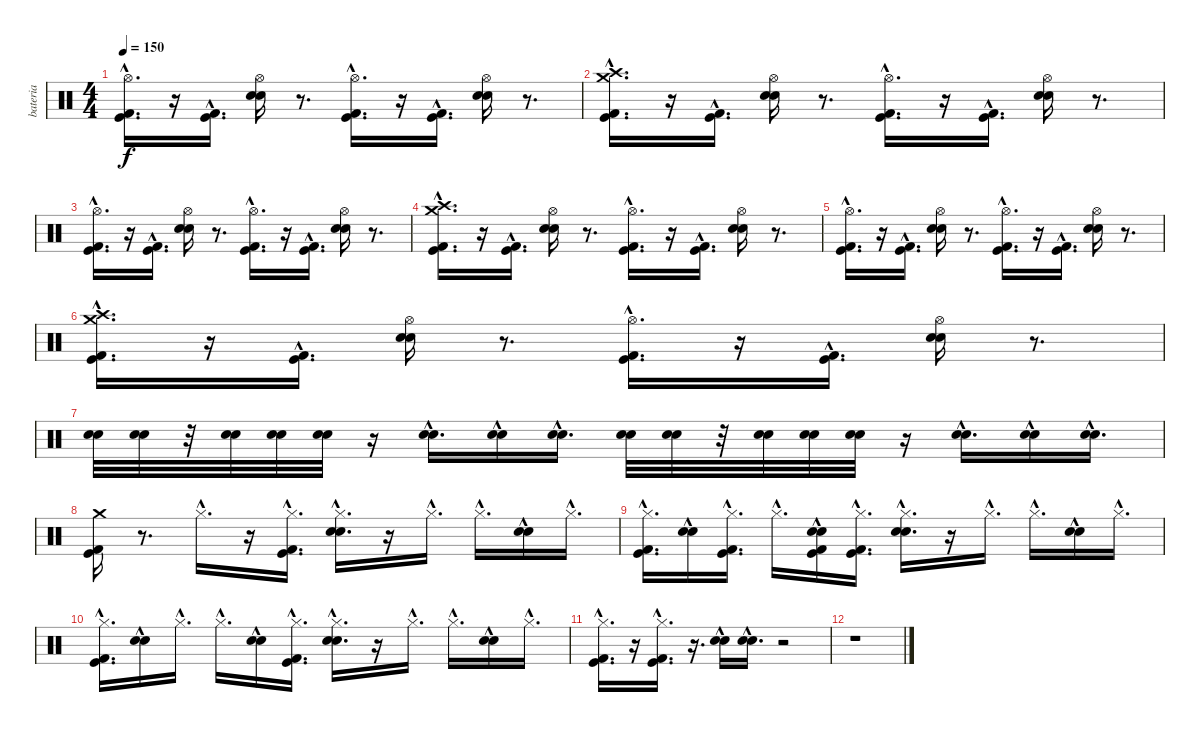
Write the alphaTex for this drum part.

\track ("bateria" "bateria") {instrument percussion}
\staff {score}
\articulation defaults
\ts (4 4)
\tempo 150
\clef neutral
\ks c
("Hi-Hat (open)"{hac} "Kick (hit) 2"{hac} "Kick (hit)"{hac}).16{d dy f} r.16 ("Kick (hit) 2"{hac} "Kick (hit)"{hac}).16{d} ("Hi-Hat (open)" "Electric Snare (hit)" "Snare (hit) 2").16 r.8{d} ("Hi-Hat (open)"{hac} "Kick (hit) 2"{hac} "Kick (hit)"{hac}).16{d} r.16 ("Kick (hit) 2"{hac} "Kick (hit)"{hac}).16{d} ("Hi-Hat (open)" "Electric Snare (hit)" "Snare (hit) 2").16 r.8{d} |
("Crash high (hit)"{hac} "Crash medium (hit)"{hac} "Kick (hit) 2"{hac} "Kick (hit)"{hac}).16{d} r.16 ("Kick (hit) 2"{hac} "Kick (hit)"{hac}).16{d} ("Hi-Hat (open)" "Electric Snare (hit)" "Snare (hit) 2").16 r.8{d} ("Hi-Hat (open)"{hac} "Kick (hit) 2"{hac} "Kick (hit)"{hac}).16{d} r.16 ("Kick (hit) 2"{hac} "Kick (hit)"{hac}).16{d} ("Hi-Hat (open)" "Electric Snare (hit)" "Snare (hit) 2").16 r.8{d} |
("Hi-Hat (open)"{hac} "Kick (hit) 2"{hac} "Kick (hit)"{hac}).16{d} r.16 ("Kick (hit) 2"{hac} "Kick (hit)"{hac}).16{d} ("Hi-Hat (open)" "Electric Snare (hit)" "Snare (hit) 2").16 r.8{d} ("Hi-Hat (open)"{hac} "Kick (hit) 2"{hac} "Kick (hit)"{hac}).16{d} r.16 ("Kick (hit) 2"{hac} "Kick (hit)"{hac}).16{d} ("Hi-Hat (open)" "Electric Snare (hit)" "Snare (hit) 2").16 r.8{d} |
("Crash high (hit)"{hac} "Crash medium (hit)"{hac} "Kick (hit) 2"{hac} "Kick (hit)"{hac}).16{d} r.16 ("Kick (hit) 2"{hac} "Kick (hit)"{hac}).16{d} ("Hi-Hat (open)" "Electric Snare (hit)" "Snare (hit) 2").16 r.8{d} ("Hi-Hat (open)"{hac} "Kick (hit) 2"{hac} "Kick (hit)"{hac}).16{d} r.16 ("Kick (hit) 2"{hac} "Kick (hit)"{hac}).16{d} ("Hi-Hat (open)" "Electric Snare (hit)" "Snare (hit) 2").16 r.8{d} |
("Hi-Hat (open)"{hac} "Kick (hit) 2"{hac} "Kick (hit)"{hac}).16{d} r.16 ("Kick (hit) 2"{hac} "Kick (hit)"{hac}).16{d} ("Hi-Hat (open)" "Electric Snare (hit)" "Snare (hit) 2").16 r.8{d} ("Hi-Hat (open)"{hac} "Kick (hit) 2"{hac} "Kick (hit)"{hac}).16{d} r.16 ("Kick (hit) 2"{hac} "Kick (hit)"{hac}).16{d} ("Hi-Hat (open)" "Electric Snare (hit)" "Snare (hit) 2").16 r.8{d} |
("Crash high (hit)"{hac} "Crash medium (hit)"{hac} "Kick (hit) 2"{hac} "Kick (hit)"{hac}).16{d} r.16 ("Kick (hit) 2"{hac} "Kick (hit)"{hac}).16{d} ("Hi-Hat (open)" "Electric Snare (hit)" "Snare (hit) 2").16 r.8{d} ("Hi-Hat (open)"{hac} "Kick (hit) 2"{hac} "Kick (hit)"{hac}).16{d} r.16 ("Kick (hit) 2"{hac} "Kick (hit)"{hac}).16{d} ("Hi-Hat (open)" "Electric Snare (hit)" "Snare (hit) 2").16 r.8{d} |
("Electric Snare (hit)" "Snare (hit) 2").32 ("Electric Snare (hit)" "Snare (hit) 2").32 r.32 ("Electric Snare (hit)" "Snare (hit) 2").32 ("Electric Snare (hit)" "Snare (hit) 2").32 ("Electric Snare (hit)" "Snare (hit) 2").32 r.16 ("Electric Snare (hit)"{hac} "Snare (hit) 2"{hac}).16{d} ("Electric Snare (hit)"{hac} "Snare (hit) 2"{hac}).16 ("Electric Snare (hit)"{hac} "Snare (hit) 2"{hac}).16{d} ("Electric Snare (hit)" "Snare (hit) 2").32 ("Electric Snare (hit)" "Snare (hit) 2").32 r.32 ("Electric Snare (hit)" "Snare (hit) 2").32 ("Electric Snare (hit)" "Snare (hit) 2").32 ("Electric Snare (hit)" "Snare (hit) 2").32 r.16 ("Electric Snare (hit)"{hac} "Snare (hit) 2"{hac}).16{d} ("Electric Snare (hit)"{hac} "Snare (hit) 2"{hac}).16 ("Electric Snare (hit)"{hac} "Snare (hit) 2"{hac}).16{d} |
("Crash medium (hit)" "Kick (hit) 2" "Kick (hit)").16 r.8{d} "Hi-Hat (closed)"{hac}.16{d} r.16 ("Kick (hit) 2"{hac} "Kick (hit)"{hac} "Hi-Hat (closed)"{hac}).16{d} ("Hi-Hat (closed)"{hac} "Electric Snare (hit)"{hac} "Snare (hit) 2"{hac}).16{d} r.16 "Hi-Hat (closed)"{hac}.16{d} "Hi-Hat (closed)"{hac}.16{d} ("Electric Snare (hit)"{hac} "Snare (hit) 2"{hac}).16 "Hi-Hat (closed)"{hac}.16{d} |
("Kick (hit) 2"{hac} "Kick (hit)"{hac} "Hi-Hat (closed)"{hac}).16{d} ("Electric Snare (hit)"{hac} "Snare (hit) 2"{hac}).16 ("Kick (hit) 2"{hac} "Kick (hit)"{hac} "Hi-Hat (closed)"{hac}).16{d} "Hi-Hat (closed)"{hac}.16{d} ("Kick (hit) 2"{hac} "Kick (hit)"{hac} "Snare (hit) 2"{hac} "Electric Snare (hit)"{hac}).16 ("Kick (hit) 2"{hac} "Kick (hit)"{hac} "Hi-Hat (closed)"{hac}).16{d} ("Electric Snare (hit)"{hac} "Snare (hit) 2"{hac} "Hi-Hat (closed)"{hac}).16{d} r.16 "Hi-Hat (closed)"{hac}.16{d} "Hi-Hat (closed)"{hac}.16{d} ("Electric Snare (hit)"{hac} "Snare (hit) 2"{hac}).16 "Hi-Hat (closed)"{hac}.16{d} |
("Kick (hit) 2"{hac} "Kick (hit)"{hac} "Hi-Hat (closed)"{hac}).16{d} ("Electric Snare (hit)"{hac} "Snare (hit) 2"{hac}).16 "Hi-Hat (closed)"{hac}.16{d} "Hi-Hat (closed)"{hac}.16{d} ("Electric Snare (hit)"{hac} "Snare (hit) 2"{hac}).16 ("Kick (hit) 2"{hac} "Kick (hit)"{hac} "Hi-Hat (closed)"{hac}).16{d} ("Electric Snare (hit)"{hac} "Snare (hit) 2"{hac} "Hi-Hat (closed)"{hac}).16{d} r.16 "Hi-Hat (closed)"{hac}.16{d} "Hi-Hat (closed)"{hac}.16{d} ("Electric Snare (hit)"{hac} "Snare (hit) 2"{hac}).16 "Hi-Hat (closed)"{hac}.16{d} |
("Hi-Hat (closed)"{hac} "Kick (hit) 2"{hac} "Kick (hit)"{hac}).16{d} r.16 ("Hi-Hat (closed)"{hac} "Kick (hit) 2"{hac} "Kick (hit)"{hac}).16{d} r.16{d} ("Electric Snare (hit)"{hac} "Snare (hit) 2"{hac}).16 ("Electric Snare (hit)"{hac} "Snare (hit) 2"{hac}).16{d} r.2 |
r.1
